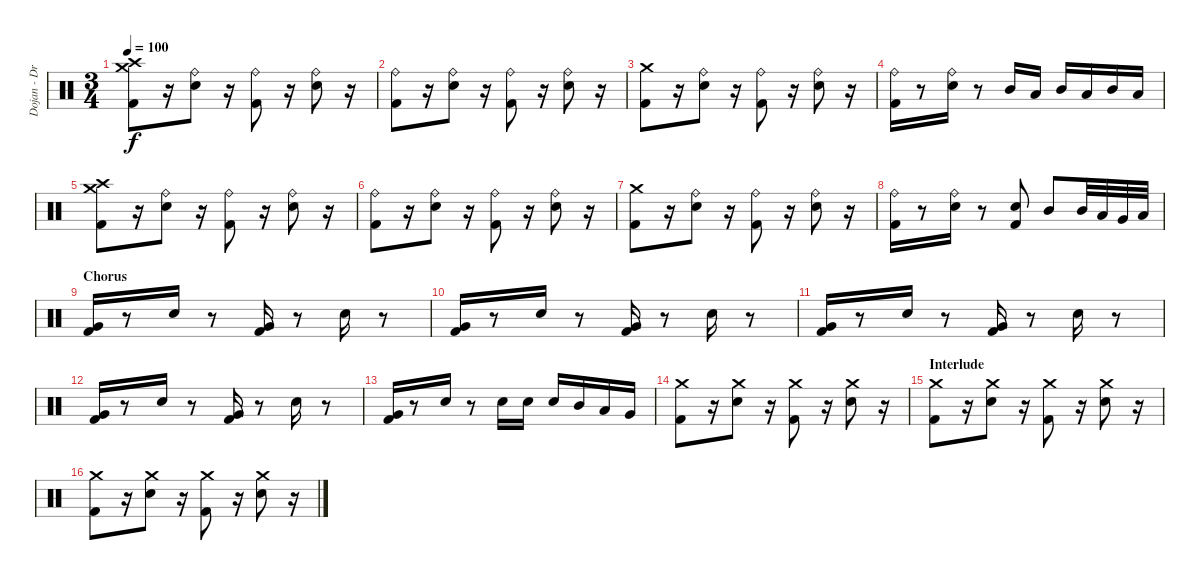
\track ("Dojan - Drums" "Dojan - Dr") {instrument percussion}
\staff {score}
\articulation defaults
\ts (3 4)
\tempo 100
\clef neutral
\ks c
("Crash high (hit)" "Crash medium (hit)" "Kick (hit) 2").8{dy f} r.16 ("Ride (bell)" "Snare (hit) 2").8 r.16 ("Ride (bell)" "Kick (hit) 2").8 r.16 ("Ride (bell)" "Snare (hit) 2").8 r.16 |
("Ride (bell)" "Kick (hit) 2").8 r.16 ("Ride (bell)" "Snare (hit) 2").8 r.16 ("Ride (bell)" "Kick (hit) 2").8 r.16 ("Ride (bell)" "Snare (hit) 2").8 r.16 |
("Crash medium (hit)" "Kick (hit) 2").8 r.16 ("Ride (bell)" "Snare (hit) 2").8 r.16 ("Ride (bell)" "Kick (hit) 2").8 r.16 ("Ride (bell)" "Snare (hit) 2").8 r.16 |
("Ride (bell)" "Kick (hit) 2").16 r.8 ("Ride (bell)" "Snare (hit) 2").16 r.8 "Mid Tom (hit)".16 "Low Tom (hit)".16 "Mid Tom (hit)".16 "Low Tom (hit)".16 "Mid Tom (hit)".16 "Low Tom (hit)".16 |
("Crash high (hit)" "Crash medium (hit)" "Kick (hit) 2").8 r.16 ("Ride (bell)" "Snare (hit) 2").8 r.16 ("Ride (bell)" "Kick (hit) 2").8 r.16 ("Ride (bell)" "Snare (hit) 2").8 r.16 |
("Ride (bell)" "Kick (hit) 2").8 r.16 ("Ride (bell)" "Snare (hit) 2").8 r.16 ("Ride (bell)" "Kick (hit) 2").8 r.16 ("Ride (bell)" "Snare (hit) 2").8 r.16 |
("Crash medium (hit)" "Kick (hit) 2").8 r.16 ("Ride (bell)" "Snare (hit) 2").8 r.16 ("Ride (bell)" "Kick (hit) 2").8 r.16 ("Ride (bell)" "Snare (hit) 2").8 r.16 |
("Ride (bell)" "Kick (hit) 2").16 r.8 ("Ride (bell)" "Snare (hit) 2").16 r.8 ("Snare (hit) 2" "Kick (hit) 2").8 "Mid Tom (hit)".8 "Mid Tom (hit)".32 "Low Tom (hit)".32 "Very Low Tom (hit)".32 "Low Floor Tom (hit)".32 |
\section ("" "Chorus")
("Very Low Tom (hit)" "Kick (hit) 2").16 r.8 "Snare (hit) 2".16 r.8 ("Very Low Tom (hit)" "Kick (hit) 2").16 r.8 "Snare (hit) 2".16 r.8 |
("Very Low Tom (hit)" "Kick (hit) 2").16 r.8 "Snare (hit) 2".16 r.8 ("Very Low Tom (hit)" "Kick (hit) 2").16 r.8 "Snare (hit) 2".16 r.8 |
("Very Low Tom (hit)" "Kick (hit) 2").16 r.8 "Snare (hit) 2".16 r.8 ("Very Low Tom (hit)" "Kick (hit) 2").16 r.8 "Snare (hit) 2".16 r.8 |
("Very Low Tom (hit)" "Kick (hit) 2").16 r.8 "Snare (hit) 2".16 r.8 ("Very Low Tom (hit)" "Kick (hit) 2").16 r.8 "Snare (hit) 2".16 r.8 |
("Very Low Tom (hit)" "Kick (hit) 2").16 r.8 "Snare (hit) 2".16 r.8 "Snare (hit) 2".16 "Snare (hit) 2".16 "Snare (hit) 2".16 "Mid Tom (hit)".16 "Low Tom (hit)".16 "Very Low Tom (hit)".16 |
("Crash medium (hit)" "Kick (hit) 2").8 r.16 ("Crash medium (hit)" "Snare (hit) 2").8 r.16 ("Crash medium (hit)" "Kick (hit) 2").8 r.16 ("Crash medium (hit)" "Snare (hit) 2").8 r.16 |
\section ("" "Interlude")
("Crash medium (hit)" "Kick (hit) 2").8 r.16 ("Crash medium (hit)" "Snare (hit) 2").8 r.16 ("Crash medium (hit)" "Kick (hit) 2").8 r.16 ("Crash medium (hit)" "Snare (hit) 2").8 r.16 |
("Crash medium (hit)" "Kick (hit) 2").8 r.16 ("Crash medium (hit)" "Snare (hit) 2").8 r.16 ("Crash medium (hit)" "Kick (hit) 2").8 r.16 ("Crash medium (hit)" "Snare (hit) 2").8 r.16
